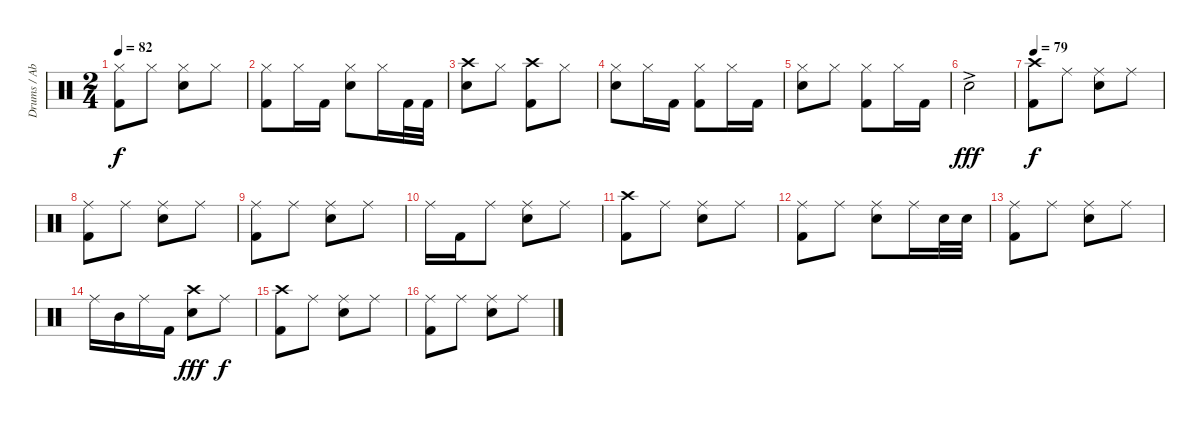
\track ("Drums / Abe Cunningham" "Drums / Ab") {instrument percussion}
\staff {score}
\articulation defaults
\ts (2 4)
\tempo 82
\clef neutral
\ks c
("Hi-Hat (closed)" "Kick (hit) 2").8{dy f} "Hi-Hat (closed)".8 ("Hi-Hat (closed)" "Electric Snare (hit)").8 "Hi-Hat (closed)".8 |
("Hi-Hat (closed)" "Kick (hit) 2").8 "Hi-Hat (closed)".16 "Kick (hit) 2".16 ("Hi-Hat (closed)" "Electric Snare (hit)").8 "Hi-Hat (closed)".16 "Kick (hit) 2".32 "Kick (hit) 2".32 |
("Crash high (hit)" "Electric Snare (hit)").8 "Hi-Hat (closed)".8 ("Crash high (hit)" "Kick (hit) 2").8 "Hi-Hat (closed)".8 |
("Hi-Hat (closed)" "Electric Snare (hit)").8 "Hi-Hat (closed)".16 "Kick (hit) 2".16 ("Hi-Hat (closed)" "Kick (hit) 2").8 "Hi-Hat (closed)".16 "Kick (hit) 2".16 |
("Hi-Hat (closed)" "Electric Snare (hit)").8 "Hi-Hat (closed)".8 ("Hi-Hat (closed)" "Kick (hit) 2").8 "Hi-Hat (closed)".16 "Kick (hit) 2".16 |
"Electric Snare (hit)"{ac}.2{dy fff} |
\tempo 79
("Crash high (hit)" "Kick (hit) 2").8{dy f} "Ride (middle)".8 ("Ride (middle)" "Electric Snare (hit)").8 "Ride (middle)".8 |
("Ride (middle)" "Kick (hit) 2").8 "Ride (middle)".8 ("Ride (middle)" "Electric Snare (hit)").8 "Ride (middle)".8 |
("Ride (middle)" "Kick (hit) 2").8 "Ride (middle)".8 ("Ride (middle)" "Electric Snare (hit)").8 "Ride (middle)".8 |
"Ride (middle)".16 "Kick (hit) 2".16 "Ride (middle)".8 ("Ride (middle)" "Electric Snare (hit)").8 "Ride (middle)".8 |
("Crash high (hit)" "Kick (hit) 2").8 "Ride (middle)".8 ("Ride (middle)" "Electric Snare (hit)").8 "Ride (middle)".8 |
("Ride (middle)" "Kick (hit) 2").8 "Ride (middle)".8 ("Ride (middle)" "Electric Snare (hit)").8 "Ride (middle)".16 "Electric Snare (hit)".32 "Electric Snare (hit)".32 |
("Ride (middle)" "Kick (hit) 2").8 "Ride (middle)".8 ("Ride (middle)" "Electric Snare (hit)").8 "Ride (middle)".8 |
"Ride (middle)".16 "Mid Tom (hit)".16 "Ride (middle)".16 "Kick (hit) 2".16 ("Crash high (hit)" "Electric Snare (hit)").8{dy fff} "Ride (middle)".8{dy f} |
("Crash high (hit)" "Kick (hit) 2").8 "Ride (middle)".8 ("Ride (middle)" "Electric Snare (hit)").8 "Ride (middle)".8 |
("Ride (middle)" "Kick (hit) 2").8 "Ride (middle)".8 ("Ride (middle)" "Electric Snare (hit)").8 "Ride (middle)".8
